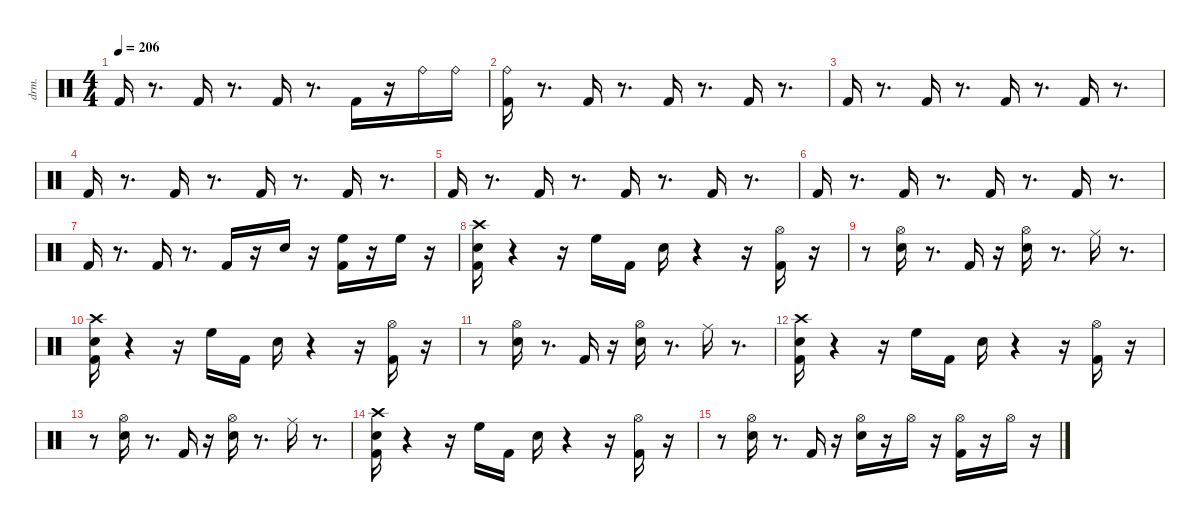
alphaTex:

\defaultSystemsLayout 4
\hideDynamics
\bracketExtendMode nobrackets
\otherSystemsTrackNameOrientation horizontal
\track ("EZdrummer 3" "drm.") {instrument percussion}
\staff {score}
\articulation defaults
\ts (4 4)
\tempo 206
\clef neutral
\ks aminor "Kick (hit) 2".16{dy ff beam Up}
r.8{d beam Up} "Kick (hit) 2".16{dy mp beam Up} r.8{d beam Up} "Kick (hit) 2".16{dy f beam Up} r.8{d beam Up} "Kick (hit) 2".16{dy mf beam Down} r.16{beam Down} "Ride (bell)".16{beam Down} "Ride (bell)".16{dy mp beam Down} |
("Kick (hit) 2" "Ride (bell)").16{dy ff beam Down} r.8{d beam Down} "Kick (hit) 2".16{dy mp beam Up} r.8{d beam Up} "Kick (hit) 2".16{dy f beam Up} r.8{d beam Up} "Kick (hit) 2".16{dy mf beam Up} r.8{d beam Up} |
"Kick (hit) 2".16{dy ff beam Up} r.8{d beam Up} "Kick (hit) 2".16{dy mp beam Up} r.8{d beam Up} "Kick (hit) 2".16{dy f beam Up} r.8{d beam Up} "Kick (hit) 2".16{dy mf beam Up} r.8{d beam Up} |
"Kick (hit) 2".16{dy ff beam Up} r.8{d beam Up} "Kick (hit) 2".16{dy mp beam Up} r.8{d beam Up} "Kick (hit) 2".16{dy f beam Up} r.8{d beam Up} "Kick (hit) 2".16{dy mf beam Up} r.8{d beam Up} |
"Kick (hit) 2".16{dy ff beam Up} r.8{d beam Up} "Kick (hit) 2".16{dy mp beam Up} r.8{d beam Up} "Kick (hit) 2".16{dy f beam Up} r.8{d beam Up} "Kick (hit) 2".16{dy mf beam Up} r.8{d beam Up} |
"Kick (hit) 2".16{dy ff beam Up} r.8{d beam Up} "Kick (hit) 2".16{dy mp beam Up} r.8{d beam Up} "Kick (hit) 2".16{dy f beam Up} r.8{d beam Up} "Kick (hit) 2".16{dy mf beam Up} r.8{d beam Up} |
"Kick (hit) 2".16{dy ff beam Up} r.8{d beam Up} "Kick (hit) 2".16{dy mp beam Up} r.8{d beam Up} "Kick (hit) 2".16{dy f beam Up} r.16{beam Up} "Snare (hit) 2".16{dy ff beam Up} r.16{beam Up} ("Kick (hit) 2" "High Floor Tom (hit)").16{dy mf beam Down} r.16{beam Down} "High Floor Tom (hit)".16{dy pp beam Down} r.16{beam Down} |
("Kick (hit) 2" "Snare (hit) 2" "Crash high (hit)"{acc #}).16{dy fff beam Down} r.4{beam Down} r.16{beam Down} "High Floor Tom (hit)".16{dy f beam Down} "Kick (hit) 2".16{dy ff beam Down} "Snare (hit) 2".16{dy fff beam Down} r.4{beam Down} r.16{beam Down} ("Kick (hit) 2" "Hi-Hat (open)"{acc #}).16{dy ff beam Down} r.16{beam Down} |
r.8{beam Down} ("Snare (hit) 2" "Hi-Hat (open)"{acc #}).16{beam Down} r.8{d beam Down} "Kick (hit) 2".16{beam Up} r.16{beam Up} ("Snare (hit) 2" "Hi-Hat (open)"{acc #}).16{beam Down} r.8{d beam Down} "Ride (middle)"{acc #}.16{beam Down} r.8{d beam Down} |
("Crash high (hit)"{acc #} "Kick (hit) 2" "Snare (hit) 2").16{dy fff beam Down} r.4{beam Down} r.16{beam Down} "High Floor Tom (hit)".16{dy f beam Down} "Kick (hit) 2".16{dy ff beam Down} "Snare (hit) 2".16{beam Down} r.4{beam Down} r.16{beam Down} ("Kick (hit) 2" "Hi-Hat (open)"{acc #}).16{beam Down} r.16{beam Down} |
r.8{beam Down} ("Snare (hit) 2" "Hi-Hat (open)"{acc #}).16{beam Down} r.8{d beam Down} "Kick (hit) 2".16{beam Up} r.16{beam Up} ("Snare (hit) 2" "Hi-Hat (open)"{acc #}).16{beam Down} r.8{d beam Down} "Ride (middle)"{acc #}.16{beam Down} r.8{d beam Down} |
("Kick (hit) 2" "Snare (hit) 2" "Crash high (hit)"{acc #}).16{dy fff beam Down} r.4{beam Down} r.16{beam Down} "High Floor Tom (hit)".16{dy f beam Down} "Kick (hit) 2".16{dy ff beam Down} "Snare (hit) 2".16{beam Down} r.4{beam Down} r.16{beam Down} ("Kick (hit) 2" "Hi-Hat (open)"{acc #}).16{beam Down} r.16{beam Down} |
r.8{beam Down} ("Snare (hit) 2" "Hi-Hat (open)"{acc #}).16{beam Down} r.8{d beam Down} "Kick (hit) 2".16{beam Up} r.16{beam Up} ("Snare (hit) 2" "Hi-Hat (open)"{acc #}).16{beam Down} r.8{d beam Down} "Ride (middle)"{acc #}.16{beam Down} r.8{d beam Down} |
("Kick (hit) 2" "Snare (hit) 2" "Crash high (hit)"{acc #}).16{dy fff beam Down} r.4{beam Down} r.16{beam Down} "High Floor Tom (hit)".16{dy f beam Down} "Kick (hit) 2".16{dy ff beam Down} "Snare (hit) 2".16{beam Down} r.4{beam Down} r.16{beam Down} ("Kick (hit) 2" "Hi-Hat (open)"{acc #}).16{beam Down} r.16{beam Down} |
r.8{beam Down} ("Snare (hit) 2" "Hi-Hat (open)"{acc #}).16{beam Down} r.8{d beam Down} "Kick (hit) 2".16{beam Up} r.16{beam Up} ("Snare (hit) 2" "Hi-Hat (open)"{acc #}).16{beam Down} r.16{beam Down} "Hi-Hat (open)"{acc #}.16{dy mp beam Down} r.16{beam Down} ("Kick (hit) 2" "Hi-Hat (open)"{acc #}).16{dy ff beam Down} r.16{beam Down} "Hi-Hat (open)"{acc #}.16{dy mf beam Down} r.16{beam Down}
